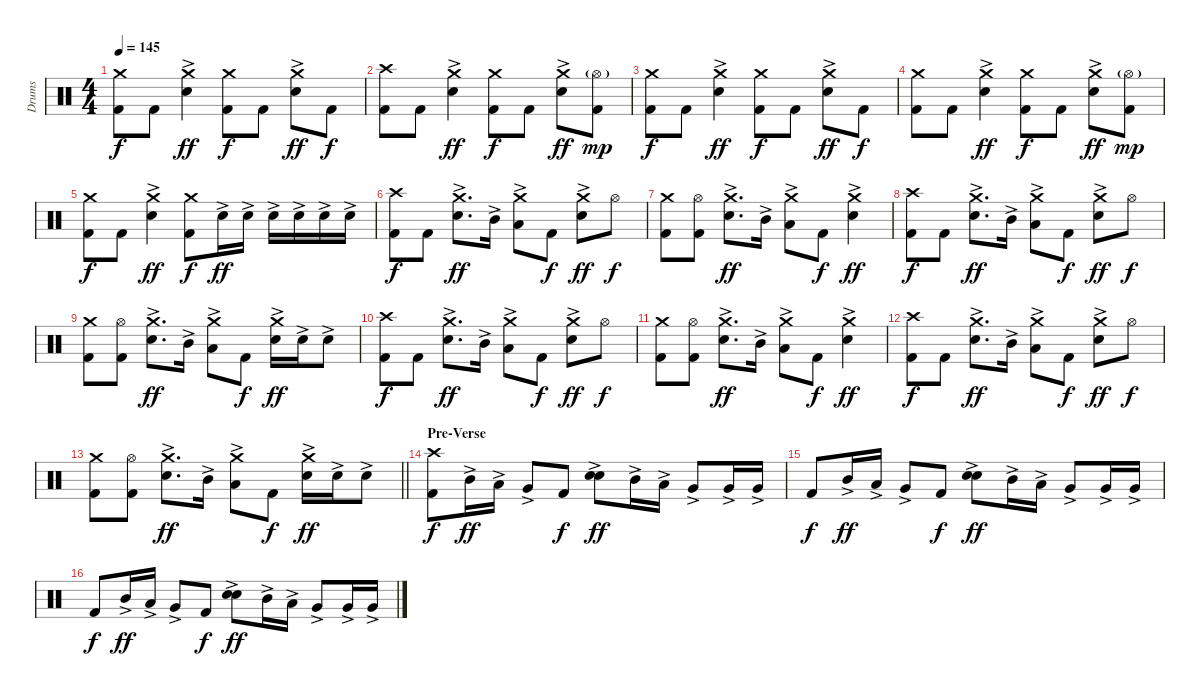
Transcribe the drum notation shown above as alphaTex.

\track ("Drums" "Drums") {instrument percussion}
\staff {score}
\articulation defaults
\ts (4 4)
\tempo 145
\clef neutral
\ks c
("Crash medium (hit)" "Kick (hit) 2").8{dy f} "Kick (hit) 2".8 ("Crash medium (hit)" "Electric Snare (hit)"{ac}).4{dy ff} ("Crash medium (hit)" "Kick (hit) 2").8{dy f} "Kick (hit) 2".8 ("Crash medium (hit)" "Electric Snare (hit)"{ac}).8{dy ff} "Kick (hit) 2".8{dy f} |
("Crash high (hit)" "Kick (hit) 2").8 "Kick (hit) 2".8 ("Crash medium (hit)" "Electric Snare (hit)"{ac}).4{dy ff} ("Crash medium (hit)" "Kick (hit) 2").8{dy f} "Kick (hit) 2".8 ("Crash medium (hit)" "Electric Snare (hit)"{ac}).8{dy ff} ("Hi-Hat (open)"{g} "Kick (hit) 2").8{dy mp} |
("Crash medium (hit)" "Kick (hit) 2").8{dy f} "Kick (hit) 2".8 ("Crash medium (hit)" "Electric Snare (hit)"{ac}).4{dy ff} ("Crash medium (hit)" "Kick (hit) 2").8{dy f} "Kick (hit) 2".8 ("Crash medium (hit)" "Electric Snare (hit)"{ac}).8{dy ff} "Kick (hit) 2".8{dy f} |
("Crash medium (hit)" "Kick (hit) 2").8 "Kick (hit) 2".8 ("Crash medium (hit)" "Electric Snare (hit)"{ac}).4{dy ff} ("Crash medium (hit)" "Kick (hit) 2").8{dy f} "Kick (hit) 2".8 ("Crash medium (hit)" "Electric Snare (hit)"{ac}).8{dy ff} ("Hi-Hat (open)"{g} "Kick (hit) 2").8{dy mp} |
("Crash medium (hit)" "Kick (hit) 2").8{dy f} "Kick (hit) 2".8 ("Crash medium (hit)" "Electric Snare (hit)"{ac}).4{dy ff} ("Crash medium (hit)" "Kick (hit) 2").8{dy f} "Electric Snare (hit)"{ac}.16{dy ff} "Electric Snare (hit)"{ac}.16 "Electric Snare (hit)"{ac}.16 "Electric Snare (hit)"{ac}.16 "Electric Snare (hit)"{ac}.16 "Electric Snare (hit)"{ac}.16 |
("Crash high (hit)" "Kick (hit) 2").8{dy f} "Kick (hit) 2".8 ("Crash medium (hit)" "Electric Snare (hit)"{ac}).8{d dy ff} "Mid Tom (hit)"{ac}.16 ("Crash medium (hit)" "Low Tom (hit)"{ac}).8 "Kick (hit) 2".8{dy f} ("Crash medium (hit)" "Electric Snare (hit)"{ac}).8{dy ff} "Hi-Hat (open)".8{dy f} |
("Crash medium (hit)" "Kick (hit) 2").8 ("Hi-Hat (open)" "Kick (hit) 2").8 ("Crash medium (hit)" "Electric Snare (hit)"{ac}).8{d dy ff} "Mid Tom (hit)"{ac}.16 ("Crash medium (hit)" "Low Tom (hit)"{ac}).8 "Kick (hit) 2".8{dy f} ("Crash medium (hit)" "Electric Snare (hit)"{ac}).4{dy ff} |
("Crash high (hit)" "Kick (hit) 2").8{dy f} "Kick (hit) 2".8 ("Crash medium (hit)" "Electric Snare (hit)"{ac}).8{d dy ff} "Mid Tom (hit)"{ac}.16 ("Crash medium (hit)" "Low Tom (hit)"{ac}).8 "Kick (hit) 2".8{dy f} ("Crash medium (hit)" "Electric Snare (hit)"{ac}).8{dy ff} "Hi-Hat (open)".8{dy f} |
("Crash medium (hit)" "Kick (hit) 2").8 ("Hi-Hat (open)" "Kick (hit) 2").8 ("Crash medium (hit)" "Electric Snare (hit)"{ac}).8{d dy ff} "Mid Tom (hit)"{ac}.16 ("Crash medium (hit)" "Low Tom (hit)"{ac}).8 "Kick (hit) 2".8{dy f} ("Crash medium (hit)" "Electric Snare (hit)"{ac}).16{dy ff} "Electric Snare (hit)"{ac}.16 "Electric Snare (hit)"{ac}.8 |
("Crash high (hit)" "Kick (hit) 2").8{dy f} "Kick (hit) 2".8 ("Crash medium (hit)" "Electric Snare (hit)"{ac}).8{d dy ff} "Mid Tom (hit)"{ac}.16 ("Crash medium (hit)" "Low Tom (hit)"{ac}).8 "Kick (hit) 2".8{dy f} ("Crash medium (hit)" "Electric Snare (hit)"{ac}).8{dy ff} "Hi-Hat (open)".8{dy f} |
("Crash medium (hit)" "Kick (hit) 2").8 ("Hi-Hat (open)" "Kick (hit) 2").8 ("Crash medium (hit)" "Electric Snare (hit)"{ac}).8{d dy ff} "Mid Tom (hit)"{ac}.16 ("Crash medium (hit)" "Low Tom (hit)"{ac}).8 "Kick (hit) 2".8{dy f} ("Crash medium (hit)" "Electric Snare (hit)"{ac}).4{dy ff} |
("Crash high (hit)" "Kick (hit) 2").8{dy f} "Kick (hit) 2".8 ("Crash medium (hit)" "Electric Snare (hit)"{ac}).8{d dy ff} "Mid Tom (hit)"{ac}.16 ("Crash medium (hit)" "Low Tom (hit)"{ac}).8 "Kick (hit) 2".8{dy f} ("Crash medium (hit)" "Electric Snare (hit)"{ac}).8{dy ff} "Hi-Hat (open)".8{dy f} |
\barLineRight lightlight
("Crash medium (hit)" "Kick (hit) 2").8 ("Hi-Hat (open)" "Kick (hit) 2").8 ("Crash medium (hit)" "Electric Snare (hit)"{ac}).8{d dy ff} "Mid Tom (hit)"{ac}.16 ("Crash medium (hit)" "Low Tom (hit)"{ac}).8 "Kick (hit) 2".8{dy f} ("Crash medium (hit)" "Electric Snare (hit)"{ac}).16{dy ff} "Electric Snare (hit)"{ac}.16 "Electric Snare (hit)"{ac}.8 |
\section ("" "Pre-Verse")
("Crash high (hit)" "Kick (hit) 2").8{dy f} "Mid Tom (hit)"{ac}.16{dy ff} "Low Tom (hit)"{ac}.16 "Very Low Tom (hit)"{ac}.8 "Kick (hit) 2".8{dy f} ("Electric Snare (hit)"{ac} "Electric Snare (hit)"{ac}).8{bu 120 dy ff} "Mid Tom (hit)"{ac}.16 "Low Tom (hit)"{ac}.16 "Very Low Tom (hit)"{ac}.8 "Very Low Tom (hit)"{ac}.16 "Very Low Tom (hit)"{ac}.16 |
"Kick (hit) 2".8{dy f} "Mid Tom (hit)"{ac}.16{dy ff} "Low Tom (hit)"{ac}.16 "Very Low Tom (hit)"{ac}.8 "Kick (hit) 2".8{dy f} ("Electric Snare (hit)"{ac} "Electric Snare (hit)"{ac}).8{bu 120 dy ff} "Mid Tom (hit)"{ac}.16 "Low Tom (hit)"{ac}.16 "Very Low Tom (hit)"{ac}.8 "Very Low Tom (hit)"{ac}.16 "Very Low Tom (hit)"{ac}.16 |
"Kick (hit) 2".8{dy f} "Mid Tom (hit)"{ac}.16{dy ff} "Low Tom (hit)"{ac}.16 "Very Low Tom (hit)"{ac}.8 "Kick (hit) 2".8{dy f} ("Electric Snare (hit)"{ac} "Electric Snare (hit)"{ac}).8{bu 120 dy ff} "Mid Tom (hit)"{ac}.16 "Low Tom (hit)"{ac}.16 "Very Low Tom (hit)"{ac}.8 "Very Low Tom (hit)"{ac}.16 "Very Low Tom (hit)"{ac}.16
